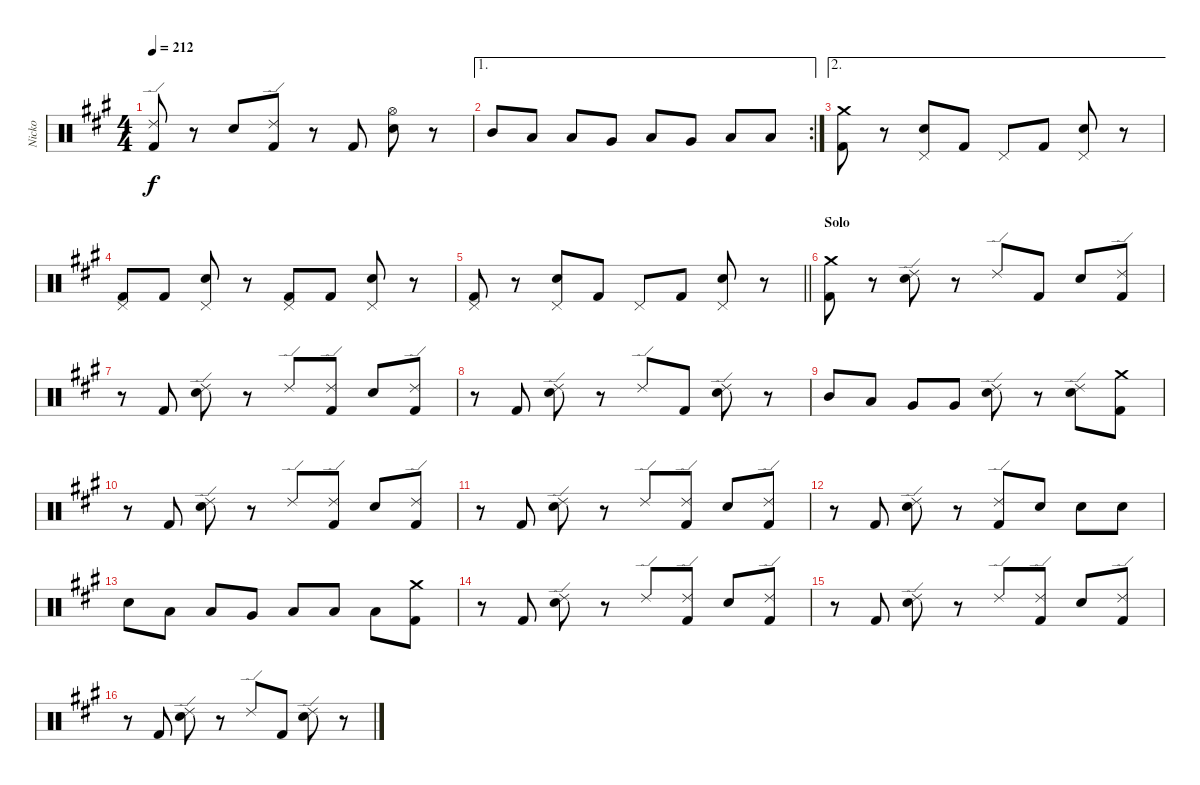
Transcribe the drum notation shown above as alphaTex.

\track ("Nicko" "Nicko") {instrument percussion}
\staff {score}
\articulation defaults
\ts (4 4)
\tempo 212
\clef neutral
\ks a
("Ride (edge) 2" "Kick (hit) 2").8{dy f} r.8 "Snare (hit) 2".8 ("Ride (edge) 2" "Kick (hit) 2").8 r.8 "Kick (hit) 2".8 ("Hi-Hat (open)" "Snare (hit) 2").8 r.8 |
\ae 1
\rc 2 "Mid Tom (hit)".8 "Low Tom (hit)".8 "Low Tom (hit)".8 "Very Low Tom (hit)".8 "Low Tom (hit)".8 "Very Low Tom (hit)".8 "Low Floor Tom (hit)".8 "Low Floor Tom (hit)".8
|
\ae 2
("Crash medium (hit)" "Kick (hit) 2").8 r.8 ("Pedal Hi-Hat (hit)" "Snare (hit) 2").8 "Kick (hit) 2".8 "Pedal Hi-Hat (hit)".8 "Kick (hit) 2".8 ("Pedal Hi-Hat (hit)" "Snare (hit) 2").8 r.8 |
("Pedal Hi-Hat (hit)" "Kick (hit) 2").8 "Kick (hit) 2".8 ("Pedal Hi-Hat (hit)" "Snare (hit) 2").8 r.8 ("Pedal Hi-Hat (hit)" "Kick (hit) 2").8 "Kick (hit) 2".8 ("Pedal Hi-Hat (hit)" "Snare (hit) 2").8 r.8 |
\barLineRight lightlight
("Pedal Hi-Hat (hit)" "Kick (hit) 2").8 r.8 ("Pedal Hi-Hat (hit)" "Snare (hit) 2").8 "Kick (hit) 2".8 "Pedal Hi-Hat (hit)".8 "Kick (hit) 2".8 ("Pedal Hi-Hat (hit)" "Snare (hit) 2").8 r.8 |
\section ("" "Solo")
("Crash medium (hit)" "Kick (hit) 2").8 r.8 ("Ride (edge) 2" "Snare (hit) 2").8 r.8 "Ride (edge) 2".8 "Kick (hit) 2".8 "Snare (hit) 2".8 ("Ride (edge) 2" "Kick (hit) 2").8 |
r.8 "Kick (hit) 2".8 ("Ride (edge) 2" "Snare (hit) 2").8 r.8 "Ride (edge) 2".8 ("Ride (edge) 2" "Kick (hit) 2").8 "Snare (hit) 2".8 ("Ride (edge) 2" "Kick (hit) 2").8 |
r.8 "Kick (hit) 2".8 ("Ride (edge) 2" "Snare (hit) 2").8 r.8 "Ride (edge) 2".8 "Kick (hit) 2".8 ("Ride (edge) 2" "Snare (hit) 2").8 r.8 |
"Mid Tom (hit)".8 "Low Tom (hit)".8 "Very Low Tom (hit)".8 "Very Low Tom (hit)".8 ("Ride (edge) 2" "Snare (hit) 2").8 r.8 ("Ride (edge) 2" "Snare (hit) 2").8 ("Crash medium (hit)" "Kick (hit) 2").8 |
r.8 "Kick (hit) 2".8 ("Ride (edge) 2" "Snare (hit) 2").8 r.8 "Ride (edge) 2".8 ("Ride (edge) 2" "Kick (hit) 2").8 "Snare (hit) 2".8 ("Ride (edge) 2" "Kick (hit) 2").8 |
r.8 "Kick (hit) 2".8 ("Ride (edge) 2" "Snare (hit) 2").8 r.8 "Ride (edge) 2".8 ("Ride (edge) 2" "Kick (hit) 2").8 "Snare (hit) 2".8 ("Ride (edge) 2" "Kick (hit) 2").8 |
r.8 "Kick (hit) 2".8 ("Ride (edge) 2" "Snare (hit) 2").8 r.8 ("Ride (edge) 2" "Kick (hit) 2").8 "Snare (hit) 2".8 "Snare (hit) 2".8 "Snare (hit) 2".8 |
"Snare (hit) 2".8 "Low Tom (hit)".8 "Low Tom (hit)".8 "Very Low Tom (hit)".8 "Low Floor Tom (hit)".8 "Low Floor Tom (hit)".8 "Low Floor Tom (hit)".8 ("Crash medium (hit)" "Kick (hit) 2").8 |
r.8 "Kick (hit) 2".8 ("Ride (edge) 2" "Snare (hit) 2").8 r.8 "Ride (edge) 2".8 ("Ride (edge) 2" "Kick (hit) 2").8 "Snare (hit) 2".8 ("Ride (edge) 2" "Kick (hit) 2").8 |
r.8 "Kick (hit) 2".8 ("Ride (edge) 2" "Snare (hit) 2").8 r.8 "Ride (edge) 2".8 ("Ride (edge) 2" "Kick (hit) 2").8 "Snare (hit) 2".8 ("Ride (edge) 2" "Kick (hit) 2").8 |
r.8 "Kick (hit) 2".8 ("Ride (edge) 2" "Snare (hit) 2").8 r.8 "Ride (edge) 2".8 "Kick (hit) 2".8 ("Ride (edge) 2" "Snare (hit) 2").8 r.8
